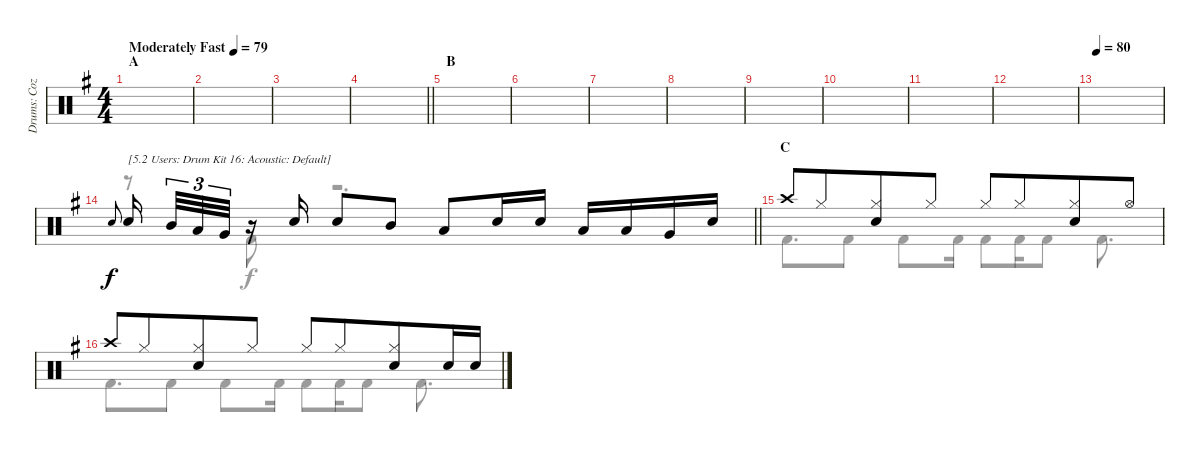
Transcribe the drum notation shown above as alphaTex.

\track ("Drums: Cozy" "Drums: Coz") {instrument percussion}
\staff {score}
\articulation defaults
\voice
\ts (4 4)
\section ("" "A")
\tempo (79 "Moderately Fast")
\clef neutral
\ks g
|
|
|
\barLineRight lightlight
|
\section ("" "B")
|
|
|
|
|
|
|
|
\tempo 80
|
\barLineRight lightlight "Electric Snare (hit)".8{gr onbeat} "Snare (hit) 2".16{txt "[5.2 Users: Drum Kit 16: Acoustic: Default]" beam splitsecondary} "Mid Tom (hit)".32{tu (3 2)} "Low Tom (hit)".32{tu (3 2)} "Very Low Tom (hit)".32{tu (3 2)}
r.16 "Electric Snare (hit)".16 "Electric Snare (hit)".8 "Mid Tom (hit)".8 "Low Tom (hit)".8 "Electric Snare (hit)".16 "Electric Snare (hit)".16 "Low Tom (hit)".16 "Low Tom (hit)".16 "Very Low Tom (hit)".16 "Electric Snare (hit)".16 |
\section ("" "C")
"Crash high (hit)".8 "Hi-Hat (closed)".8{beam merge} ("Hi-Hat (closed)" "Electric Snare (hit)").8 "Hi-Hat (closed)".8 "Hi-Hat (closed)".8 "Hi-Hat (closed)".8{beam merge} ("Hi-Hat (closed)" "Electric Snare (hit)").8 "Hi-Hat (open)".8 |
"Crash high (hit)".8 "Hi-Hat (closed)".8{beam merge} ("Hi-Hat (closed)" "Electric Snare (hit)").8 "Hi-Hat (closed)".8 "Hi-Hat (closed)".8 "Hi-Hat (closed)".8{beam merge} ("Hi-Hat (closed)" "Electric Snare (hit)").8 "Electric Snare (hit)".16 "Electric Snare (hit)".16
\voice
\clef neutral
\ottava regular
\simile none
\ks g
|
|
|
\barLineRight lightlight
|
|
|
|
|
|
|
|
|
|
\barLineRight lightlight
r.8 "Kick (hit) 2".8 r.2{d} |
"Kick (hit) 2".8{d} "Kick (hit) 2".8 "Kick (hit) 2".8 "Kick (hit) 2".16 "Kick (hit) 2".8 "Kick (hit) 2".16 "Kick (hit) 2".8 "Kick (hit) 2".8{d} |
"Kick (hit) 2".8{d} "Kick (hit) 2".8 "Kick (hit) 2".8 "Kick (hit) 2".16 "Kick (hit) 2".8 "Kick (hit) 2".16 "Kick (hit) 2".8 "Kick (hit) 2".8{d}
